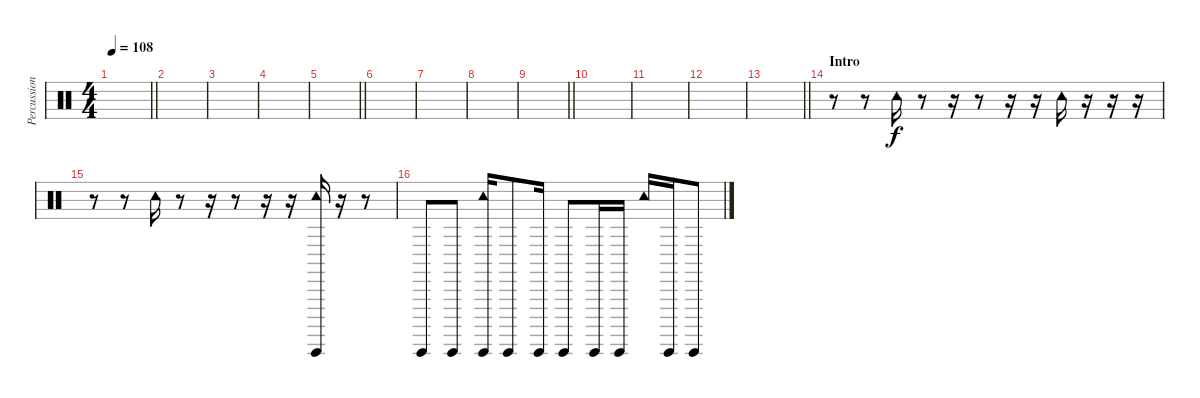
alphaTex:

\track ("Percussion (Chad Smith)" "Percussion") {instrument percussion}
\staff {score}
\articulation defaults
\ts (4 4)
\tempo 108
\clef neutral
\barLineRight lightlight
\ks c
|
|
|
|
\barLineRight lightlight
|
|
|
|
\barLineRight lightlight
|
|
|
|
\barLineRight lightlight
|
\section ("" "Intro")
r.8 r.8 "Tambourine (hit)".16 r.8 r.16 r.8 r.16 r.16 "Tambourine (hit)".16 r.16 r.16 r.16 |
r.8 r.8 "Tambourine (hit)".16 r.8 r.16 r.8 r.16 r.16 ("Guiro (hit)" "Tambourine (hit)").16 r.16 r.8 |
"Guiro (hit)".8 "Guiro (hit)".8 ("Guiro (hit)" "Tambourine (hit)").16 "Guiro (hit)".8 "Guiro (hit)".16 "Guiro (hit)".8 "Guiro (hit)".16 "Guiro (hit)".16 "Tambourine (hit)".16 "Guiro (hit)".16 "Guiro (hit)".8
